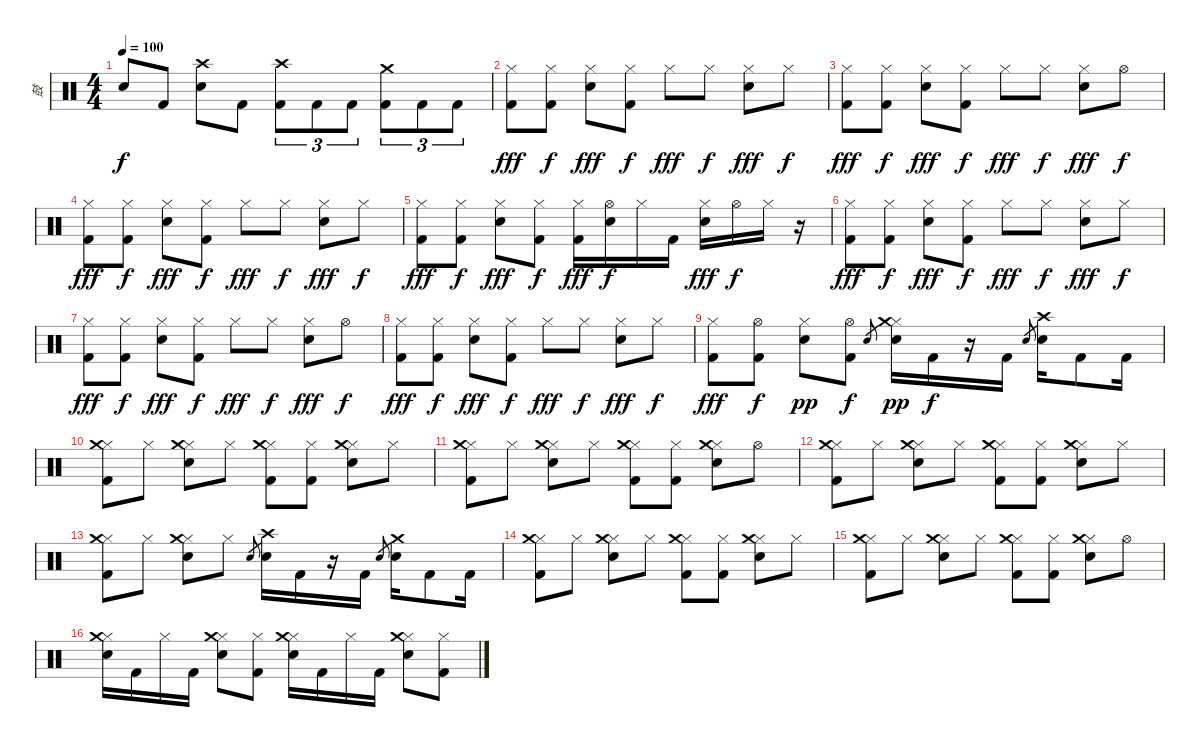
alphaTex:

\track ("鼓" "鼓") {instrument percussion}
\staff {score}
\articulation defaults
\ts (4 4)
\tempo 100
\clef neutral
\ks c "Snare (hit) 2".8{dy f} "Kick (hit) 2".8
("Crash high (hit)" "Snare (hit) 2").8 "Kick (hit) 2".8 ("Crash high (hit)" "Kick (hit) 2").8{tu (3 2)} "Kick (hit) 2".8{tu (3 2)} "Kick (hit) 2".8{tu (3 2)} ("Crash medium (hit)" "Kick (hit) 2").8{tu (3 2)} "Kick (hit) 2".8{tu (3 2)} "Kick (hit) 2".8{tu (3 2)} |
("Hi-Hat (closed)" "Kick (hit) 2").8{dy fff} ("Hi-Hat (closed)" "Kick (hit) 2").8{dy f} ("Hi-Hat (closed)" "Snare (hit) 2").8{dy fff} ("Hi-Hat (closed)" "Kick (hit) 2").8{dy f} "Hi-Hat (closed)".8{dy fff} "Hi-Hat (closed)".8{dy f} ("Hi-Hat (closed)" "Snare (hit) 2").8{dy fff} "Hi-Hat (closed)".8{dy f} |
("Hi-Hat (closed)" "Kick (hit) 2").8{dy fff} ("Hi-Hat (closed)" "Kick (hit) 2").8{dy f} ("Hi-Hat (closed)" "Snare (hit) 2").8{dy fff} ("Hi-Hat (closed)" "Kick (hit) 2").8{dy f} "Hi-Hat (closed)".8{dy fff} "Hi-Hat (closed)".8{dy f} ("Hi-Hat (closed)" "Snare (hit) 2").8{dy fff} "Hi-Hat (open)".8{dy f} |
("Hi-Hat (closed)" "Kick (hit) 2").8{dy fff} ("Hi-Hat (closed)" "Kick (hit) 2").8{dy f} ("Hi-Hat (closed)" "Snare (hit) 2").8{dy fff} ("Hi-Hat (closed)" "Kick (hit) 2").8{dy f} "Hi-Hat (closed)".8{dy fff} "Hi-Hat (closed)".8{dy f} ("Hi-Hat (closed)" "Snare (hit) 2").8{dy fff} "Hi-Hat (closed)".8{dy f} |
("Hi-Hat (closed)" "Kick (hit) 2").8{dy fff} ("Hi-Hat (closed)" "Kick (hit) 2").8{dy f} ("Hi-Hat (closed)" "Snare (hit) 2").8{dy fff} ("Hi-Hat (closed)" "Kick (hit) 2").8{dy f} ("Hi-Hat (closed)" "Kick (hit) 2").16{dy fff} ("Hi-Hat (open)" "Snare (hit) 2").16{dy f} "Hi-Hat (closed)".16 "Kick (hit) 2".16 ("Hi-Hat (closed)" "Snare (hit) 2").16{dy fff} "Hi-Hat (open)".16{dy f} "Hi-Hat (closed)".16 r.16 |
("Hi-Hat (closed)" "Kick (hit) 2").8{dy fff} ("Hi-Hat (closed)" "Kick (hit) 2").8{dy f} ("Hi-Hat (closed)" "Snare (hit) 2").8{dy fff} ("Hi-Hat (closed)" "Kick (hit) 2").8{dy f} "Hi-Hat (closed)".8{dy fff} "Hi-Hat (closed)".8{dy f} ("Hi-Hat (closed)" "Snare (hit) 2").8{dy fff} "Hi-Hat (closed)".8{dy f} |
("Hi-Hat (closed)" "Kick (hit) 2").8{dy fff} ("Hi-Hat (closed)" "Kick (hit) 2").8{dy f} ("Hi-Hat (closed)" "Snare (hit) 2").8{dy fff} ("Hi-Hat (closed)" "Kick (hit) 2").8{dy f} "Hi-Hat (closed)".8{dy fff} "Hi-Hat (closed)".8{dy f} ("Hi-Hat (closed)" "Snare (hit) 2").8{dy fff} "Hi-Hat (open)".8{dy f} |
("Hi-Hat (closed)" "Kick (hit) 2").8{dy fff} ("Hi-Hat (closed)" "Kick (hit) 2").8{dy f} ("Hi-Hat (closed)" "Snare (hit) 2").8{dy fff} ("Hi-Hat (closed)" "Kick (hit) 2").8{dy f} "Hi-Hat (closed)".8{dy fff} "Hi-Hat (closed)".8{dy f} ("Hi-Hat (closed)" "Snare (hit) 2").8{dy fff} "Hi-Hat (closed)".8{dy f} |
("Hi-Hat (closed)" "Kick (hit) 2").8{dy fff} ("Hi-Hat (open)" "Kick (hit) 2").8{dy f} ("Hi-Hat (closed)" "Snare (hit) 2").8{dy pp} ("Hi-Hat (open)" "Kick (hit) 2").8{dy f} "Snare (hit) 2".8{gr} ("Hi-Hat (closed)" "Crash medium (hit)" "Snare (hit) 2").16{dy pp} "Kick (hit) 2".16{dy f} r.16 "Kick (hit) 2".16 "Snare (hit) 2".8{gr} ("Crash high (hit)" "Snare (hit) 2").16 "Kick (hit) 2".8 "Kick (hit) 2".16 |
("Hi-Hat (closed)" "Crash medium (hit)" "Kick (hit) 2").8 "Hi-Hat (closed)".8 ("Hi-Hat (closed)" "Crash medium (hit)" "Snare (hit) 2").8 "Hi-Hat (closed)".8 ("Hi-Hat (closed)" "Crash medium (hit)" "Kick (hit) 2").8 ("Hi-Hat (closed)" "Kick (hit) 2").8 ("Hi-Hat (closed)" "Crash medium (hit)" "Snare (hit) 2").8 "Hi-Hat (closed)".8 |
("Hi-Hat (closed)" "Crash medium (hit)" "Kick (hit) 2").8 "Hi-Hat (closed)".8 ("Hi-Hat (closed)" "Crash medium (hit)" "Snare (hit) 2").8 "Hi-Hat (closed)".8 ("Hi-Hat (closed)" "Crash medium (hit)" "Kick (hit) 2").8 ("Hi-Hat (closed)" "Kick (hit) 2").8 ("Hi-Hat (closed)" "Crash medium (hit)" "Snare (hit) 2").8 "Hi-Hat (open)".8 |
("Hi-Hat (closed)" "Crash medium (hit)" "Kick (hit) 2").8 "Hi-Hat (closed)".8 ("Hi-Hat (closed)" "Crash medium (hit)" "Snare (hit) 2").8 "Hi-Hat (closed)".8 ("Hi-Hat (closed)" "Crash medium (hit)" "Kick (hit) 2").8 ("Hi-Hat (closed)" "Kick (hit) 2").8 ("Hi-Hat (closed)" "Crash medium (hit)" "Snare (hit) 2").8 "Hi-Hat (closed)".8 |
("Hi-Hat (closed)" "Crash medium (hit)" "Kick (hit) 2").8 "Hi-Hat (closed)".8 ("Hi-Hat (closed)" "Crash medium (hit)" "Snare (hit) 2").8 "Hi-Hat (closed)".8 "Snare (hit) 2".8{gr} ("Crash high (hit)" "Snare (hit) 2").16 "Kick (hit) 2".16 r.16 "Kick (hit) 2".16 "Snare (hit) 2".8{gr} ("Crash medium (hit)" "Snare (hit) 2").16 "Kick (hit) 2".8 "Kick (hit) 2".16 |
("Hi-Hat (closed)" "Crash medium (hit)" "Kick (hit) 2").8 "Hi-Hat (closed)".8 ("Hi-Hat (closed)" "Crash medium (hit)" "Snare (hit) 2").8 "Hi-Hat (closed)".8 ("Hi-Hat (closed)" "Crash medium (hit)" "Kick (hit) 2").8 ("Hi-Hat (closed)" "Kick (hit) 2").8 ("Hi-Hat (closed)" "Crash medium (hit)" "Snare (hit) 2").8 "Hi-Hat (closed)".8 |
("Hi-Hat (closed)" "Crash medium (hit)" "Kick (hit) 2").8 "Hi-Hat (closed)".8 ("Hi-Hat (closed)" "Crash medium (hit)" "Snare (hit) 2").8 "Hi-Hat (closed)".8 ("Hi-Hat (closed)" "Crash medium (hit)" "Kick (hit) 2").8 ("Hi-Hat (closed)" "Kick (hit) 2").8 ("Hi-Hat (closed)" "Crash medium (hit)" "Snare (hit) 2").8 "Hi-Hat (open)".8 |
("Hi-Hat (closed)" "Crash medium (hit)" "Snare (hit) 2").16 "Kick (hit) 2".16 "Hi-Hat (closed)".16 "Kick (hit) 2".16 ("Hi-Hat (closed)" "Crash medium (hit)" "Snare (hit) 2").8 ("Hi-Hat (closed)" "Kick (hit) 2").8 ("Hi-Hat (closed)" "Crash medium (hit)" "Snare (hit) 2").16 "Kick (hit) 2".16 "Hi-Hat (closed)".16 "Kick (hit) 2".16 ("Hi-Hat (closed)" "Crash medium (hit)" "Snare (hit) 2").8 ("Hi-Hat (closed)" "Kick (hit) 2").8
